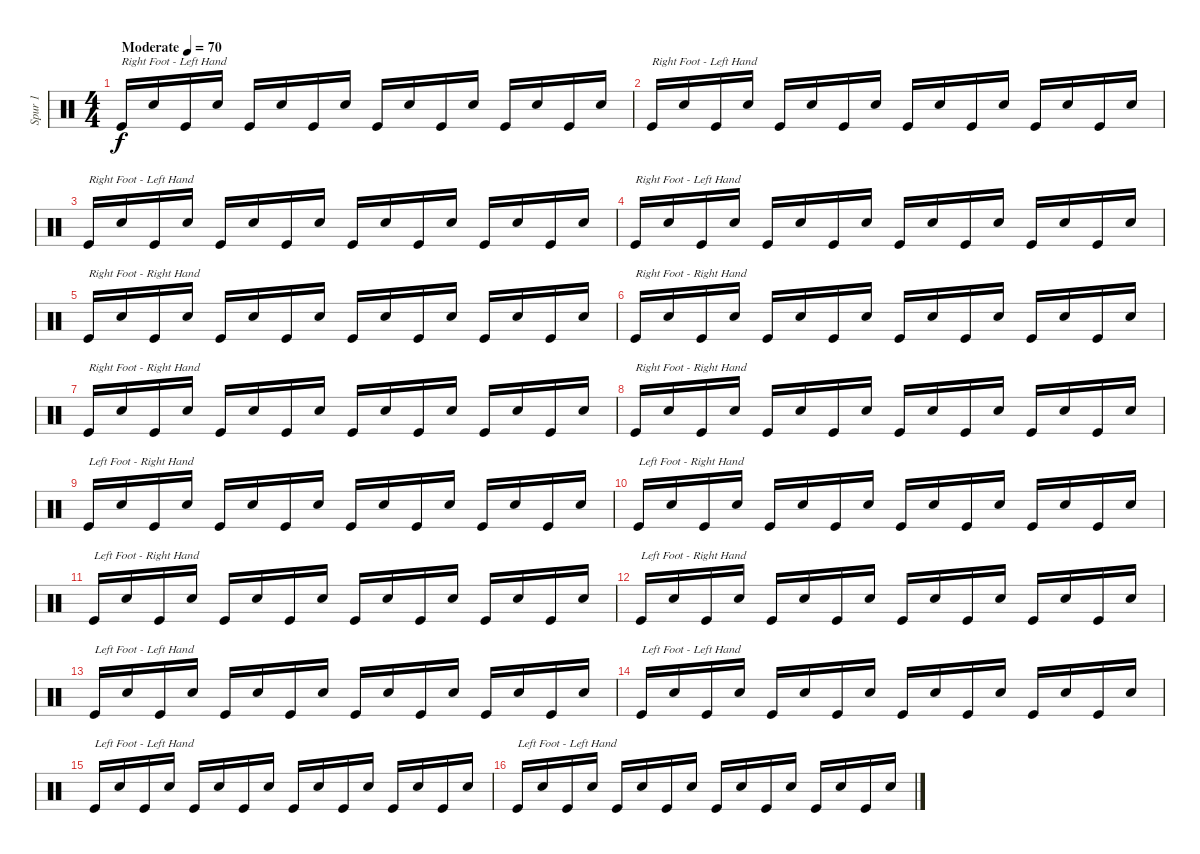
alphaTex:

\track ("Spur 1" "Spur 1") {instrument percussion}
\staff {score}
\articulation defaults
\ts (4 4)
\tempo (70 "Moderate")
\clef neutral
\ks c "Kick (hit)".16{txt "Right Foot - Left Hand" dy f} "Snare (hit) 2".16 "Kick (hit)".16 "Snare (hit) 2".16 "Kick (hit)".16 "Snare (hit) 2".16 "Kick (hit)".16 "Snare (hit) 2".16 "Kick (hit)".16 "Snare (hit) 2".16 "Kick (hit)".16 "Snare (hit) 2".16 "Kick (hit)".16 "Snare (hit) 2".16 "Kick (hit)".16 "Snare (hit) 2".16
|
"Kick (hit)".16{txt "Right Foot - Left Hand"} "Snare (hit) 2".16 "Kick (hit)".16 "Snare (hit) 2".16 "Kick (hit)".16 "Snare (hit) 2".16 "Kick (hit)".16 "Snare (hit) 2".16 "Kick (hit)".16 "Snare (hit) 2".16 "Kick (hit)".16 "Snare (hit) 2".16 "Kick (hit)".16 "Snare (hit) 2".16 "Kick (hit)".16 "Snare (hit) 2".16 |
"Kick (hit)".16{txt "Right Foot - Left Hand"} "Snare (hit) 2".16 "Kick (hit)".16 "Snare (hit) 2".16 "Kick (hit)".16 "Snare (hit) 2".16 "Kick (hit)".16 "Snare (hit) 2".16 "Kick (hit)".16 "Snare (hit) 2".16 "Kick (hit)".16 "Snare (hit) 2".16 "Kick (hit)".16 "Snare (hit) 2".16 "Kick (hit)".16 "Snare (hit) 2".16 |
"Kick (hit)".16{txt "Right Foot - Left Hand"} "Snare (hit) 2".16 "Kick (hit)".16 "Snare (hit) 2".16 "Kick (hit)".16 "Snare (hit) 2".16 "Kick (hit)".16 "Snare (hit) 2".16 "Kick (hit)".16 "Snare (hit) 2".16 "Kick (hit)".16 "Snare (hit) 2".16 "Kick (hit)".16 "Snare (hit) 2".16 "Kick (hit)".16 "Snare (hit) 2".16 |
"Kick (hit)".16{txt "Right Foot - Right Hand"} "Snare (hit) 2".16 "Kick (hit)".16 "Snare (hit) 2".16 "Kick (hit)".16 "Snare (hit) 2".16 "Kick (hit)".16 "Snare (hit) 2".16 "Kick (hit)".16 "Snare (hit) 2".16 "Kick (hit)".16 "Snare (hit) 2".16 "Kick (hit)".16 "Snare (hit) 2".16 "Kick (hit)".16 "Snare (hit) 2".16 |
"Kick (hit)".16{txt "Right Foot - Right Hand"} "Snare (hit) 2".16 "Kick (hit)".16 "Snare (hit) 2".16 "Kick (hit)".16 "Snare (hit) 2".16 "Kick (hit)".16 "Snare (hit) 2".16 "Kick (hit)".16 "Snare (hit) 2".16 "Kick (hit)".16 "Snare (hit) 2".16 "Kick (hit)".16 "Snare (hit) 2".16 "Kick (hit)".16 "Snare (hit) 2".16 |
"Kick (hit)".16{txt "Right Foot - Right Hand"} "Snare (hit) 2".16 "Kick (hit)".16 "Snare (hit) 2".16 "Kick (hit)".16 "Snare (hit) 2".16 "Kick (hit)".16 "Snare (hit) 2".16 "Kick (hit)".16 "Snare (hit) 2".16 "Kick (hit)".16 "Snare (hit) 2".16 "Kick (hit)".16 "Snare (hit) 2".16 "Kick (hit)".16 "Snare (hit) 2".16 |
"Kick (hit)".16{txt "Right Foot - Right Hand"} "Snare (hit) 2".16 "Kick (hit)".16 "Snare (hit) 2".16 "Kick (hit)".16 "Snare (hit) 2".16 "Kick (hit)".16 "Snare (hit) 2".16 "Kick (hit)".16 "Snare (hit) 2".16 "Kick (hit)".16 "Snare (hit) 2".16 "Kick (hit)".16 "Snare (hit) 2".16 "Kick (hit)".16 "Snare (hit) 2".16 |
"Kick (hit)".16{txt "Left Foot - Right Hand"} "Snare (hit) 2".16 "Kick (hit)".16 "Snare (hit) 2".16 "Kick (hit)".16 "Snare (hit) 2".16 "Kick (hit)".16 "Snare (hit) 2".16 "Kick (hit)".16 "Snare (hit) 2".16 "Kick (hit)".16 "Snare (hit) 2".16 "Kick (hit)".16 "Snare (hit) 2".16 "Kick (hit)".16 "Snare (hit) 2".16 |
"Kick (hit)".16{txt "Left Foot - Right Hand"} "Snare (hit) 2".16 "Kick (hit)".16 "Snare (hit) 2".16 "Kick (hit)".16 "Snare (hit) 2".16 "Kick (hit)".16 "Snare (hit) 2".16 "Kick (hit)".16 "Snare (hit) 2".16 "Kick (hit)".16 "Snare (hit) 2".16 "Kick (hit)".16 "Snare (hit) 2".16 "Kick (hit)".16 "Snare (hit) 2".16 |
"Kick (hit)".16{txt "Left Foot - Right Hand"} "Snare (hit) 2".16 "Kick (hit)".16 "Snare (hit) 2".16 "Kick (hit)".16 "Snare (hit) 2".16 "Kick (hit)".16 "Snare (hit) 2".16 "Kick (hit)".16 "Snare (hit) 2".16 "Kick (hit)".16 "Snare (hit) 2".16 "Kick (hit)".16 "Snare (hit) 2".16 "Kick (hit)".16 "Snare (hit) 2".16 |
"Kick (hit)".16{txt "Left Foot - Right Hand"} "Snare (hit) 2".16 "Kick (hit)".16 "Snare (hit) 2".16 "Kick (hit)".16 "Snare (hit) 2".16 "Kick (hit)".16 "Snare (hit) 2".16 "Kick (hit)".16 "Snare (hit) 2".16 "Kick (hit)".16 "Snare (hit) 2".16 "Kick (hit)".16 "Snare (hit) 2".16 "Kick (hit)".16 "Snare (hit) 2".16 |
"Kick (hit)".16{txt "Left Foot - Left Hand"} "Snare (hit) 2".16 "Kick (hit)".16 "Snare (hit) 2".16 "Kick (hit)".16 "Snare (hit) 2".16 "Kick (hit)".16 "Snare (hit) 2".16 "Kick (hit)".16 "Snare (hit) 2".16 "Kick (hit)".16 "Snare (hit) 2".16 "Kick (hit)".16 "Snare (hit) 2".16 "Kick (hit)".16 "Snare (hit) 2".16 |
"Kick (hit)".16{txt "Left Foot - Left Hand"} "Snare (hit) 2".16 "Kick (hit)".16 "Snare (hit) 2".16 "Kick (hit)".16 "Snare (hit) 2".16 "Kick (hit)".16 "Snare (hit) 2".16 "Kick (hit)".16 "Snare (hit) 2".16 "Kick (hit)".16 "Snare (hit) 2".16 "Kick (hit)".16 "Snare (hit) 2".16 "Kick (hit)".16 "Snare (hit) 2".16 |
"Kick (hit)".16{txt "Left Foot - Left Hand"} "Snare (hit) 2".16 "Kick (hit)".16 "Snare (hit) 2".16 "Kick (hit)".16 "Snare (hit) 2".16 "Kick (hit)".16 "Snare (hit) 2".16 "Kick (hit)".16 "Snare (hit) 2".16 "Kick (hit)".16 "Snare (hit) 2".16 "Kick (hit)".16 "Snare (hit) 2".16 "Kick (hit)".16 "Snare (hit) 2".16 |
"Kick (hit)".16{txt "Left Foot - Left Hand"} "Snare (hit) 2".16 "Kick (hit)".16 "Snare (hit) 2".16 "Kick (hit)".16 "Snare (hit) 2".16 "Kick (hit)".16 "Snare (hit) 2".16 "Kick (hit)".16 "Snare (hit) 2".16 "Kick (hit)".16 "Snare (hit) 2".16 "Kick (hit)".16 "Snare (hit) 2".16 "Kick (hit)".16 "Snare (hit) 2".16
